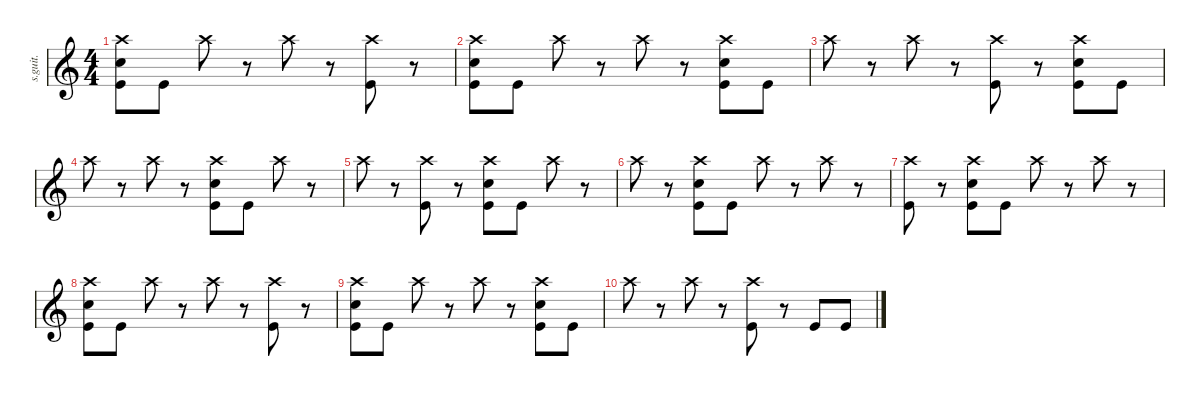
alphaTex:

\defaultSystemsLayout 4
\hideDynamics
\bracketExtendMode nobrackets
\track ("Drumkit" "s.guit.") {instrument percussion}
\staff {score}
\articulation defaults
\ts (4 4)
\tempo (133 hide)
\clef g2
\ks c
("Crash high (hit)" "Snare (hit) 2" "Kick (hit)").8{lyrics (0 "") lyrics (1 "") lyrics (2 "") lyrics (3 "") lyrics (4 "") dy f} "Kick (hit)".8{lyrics (0 "") lyrics (1 "") lyrics (2 "") lyrics (3 "") lyrics (4 "")} "Crash high (hit)".8{lyrics (0 "") lyrics (1 "") lyrics (2 "") lyrics (3 "") lyrics (4 "")} r.8 "Crash high (hit)".8{lyrics (0 "") lyrics (1 "") lyrics (2 "") lyrics (3 "") lyrics (4 "")} r.8 ("Crash high (hit)" "Kick (hit)").8{lyrics (0 "") lyrics (1 "") lyrics (2 "") lyrics (3 "") lyrics (4 "")} r.8 |
("Crash high (hit)" "Snare (hit) 2" "Kick (hit)").8{lyrics (0 "") lyrics (1 "") lyrics (2 "") lyrics (3 "") lyrics (4 "")} "Kick (hit)".8{lyrics (0 "") lyrics (1 "") lyrics (2 "") lyrics (3 "") lyrics (4 "")} "Crash high (hit)".8{lyrics (0 "") lyrics (1 "") lyrics (2 "") lyrics (3 "") lyrics (4 "")} r.8 "Crash high (hit)".8{lyrics (0 "") lyrics (1 "") lyrics (2 "") lyrics (3 "") lyrics (4 "")} r.8 ("Crash high (hit)" "Snare (hit) 2" "Kick (hit)").8{lyrics (0 "") lyrics (1 "") lyrics (2 "") lyrics (3 "") lyrics (4 "")} "Kick (hit)".8{lyrics (0 "") lyrics (1 "") lyrics (2 "") lyrics (3 "") lyrics (4 "")} |
"Crash high (hit)".8{lyrics (0 "") lyrics (1 "") lyrics (2 "") lyrics (3 "") lyrics (4 "")} r.8 "Crash high (hit)".8{lyrics (0 "") lyrics (1 "") lyrics (2 "") lyrics (3 "") lyrics (4 "")} r.8 ("Crash high (hit)" "Kick (hit)").8{lyrics (0 "") lyrics (1 "") lyrics (2 "") lyrics (3 "") lyrics (4 "")} r.8 ("Crash high (hit)" "Snare (hit) 2" "Kick (hit)").8{lyrics (0 "") lyrics (1 "") lyrics (2 "") lyrics (3 "") lyrics (4 "")} "Kick (hit)".8{lyrics (0 "") lyrics (1 "") lyrics (2 "") lyrics (3 "") lyrics (4 "")} |
"Crash high (hit)".8{lyrics (0 "") lyrics (1 "") lyrics (2 "") lyrics (3 "") lyrics (4 "")} r.8 "Crash high (hit)".8{lyrics (0 "") lyrics (1 "") lyrics (2 "") lyrics (3 "") lyrics (4 "")} r.8 ("Crash high (hit)" "Snare (hit) 2" "Kick (hit)").8{lyrics (0 "") lyrics (1 "") lyrics (2 "") lyrics (3 "") lyrics (4 "")} "Kick (hit)".8{lyrics (0 "") lyrics (1 "") lyrics (2 "") lyrics (3 "") lyrics (4 "")} "Crash high (hit)".8{lyrics (0 "") lyrics (1 "") lyrics (2 "") lyrics (3 "") lyrics (4 "")} r.8 |
"Crash high (hit)".8{lyrics (0 "") lyrics (1 "") lyrics (2 "") lyrics (3 "") lyrics (4 "")} r.8 ("Crash high (hit)" "Kick (hit)").8{lyrics (0 "") lyrics (1 "") lyrics (2 "") lyrics (3 "") lyrics (4 "")} r.8 ("Crash high (hit)" "Snare (hit) 2" "Kick (hit)").8{lyrics (0 "") lyrics (1 "") lyrics (2 "") lyrics (3 "") lyrics (4 "")} "Kick (hit)".8{lyrics (0 "") lyrics (1 "") lyrics (2 "") lyrics (3 "") lyrics (4 "")} "Crash high (hit)".8{lyrics (0 "") lyrics (1 "") lyrics (2 "") lyrics (3 "") lyrics (4 "")} r.8 |
"Crash high (hit)".8{lyrics (0 "") lyrics (1 "") lyrics (2 "") lyrics (3 "") lyrics (4 "")} r.8 ("Crash high (hit)" "Snare (hit) 2" "Kick (hit)").8{lyrics (0 "") lyrics (1 "") lyrics (2 "") lyrics (3 "") lyrics (4 "")} "Kick (hit)".8{lyrics (0 "") lyrics (1 "") lyrics (2 "") lyrics (3 "") lyrics (4 "")} "Crash high (hit)".8{lyrics (0 "") lyrics (1 "") lyrics (2 "") lyrics (3 "") lyrics (4 "")} r.8 "Crash high (hit)".8{lyrics (0 "") lyrics (1 "") lyrics (2 "") lyrics (3 "") lyrics (4 "")} r.8 |
("Crash high (hit)" "Kick (hit)").8{lyrics (0 "") lyrics (1 "") lyrics (2 "") lyrics (3 "") lyrics (4 "")} r.8 ("Crash high (hit)" "Snare (hit) 2" "Kick (hit)").8{lyrics (0 "") lyrics (1 "") lyrics (2 "") lyrics (3 "") lyrics (4 "")} "Kick (hit)".8{lyrics (0 "") lyrics (1 "") lyrics (2 "") lyrics (3 "") lyrics (4 "")} "Crash high (hit)".8{lyrics (0 "") lyrics (1 "") lyrics (2 "") lyrics (3 "") lyrics (4 "")} r.8 "Crash high (hit)".8{lyrics (0 "") lyrics (1 "") lyrics (2 "") lyrics (3 "") lyrics (4 "")} r.8 |
("Crash high (hit)" "Snare (hit) 2" "Kick (hit)").8{lyrics (0 "") lyrics (1 "") lyrics (2 "") lyrics (3 "") lyrics (4 "")} "Kick (hit)".8{lyrics (0 "") lyrics (1 "") lyrics (2 "") lyrics (3 "") lyrics (4 "")} "Crash high (hit)".8{lyrics (0 "") lyrics (1 "") lyrics (2 "") lyrics (3 "") lyrics (4 "")} r.8 "Crash high (hit)".8{lyrics (0 "") lyrics (1 "") lyrics (2 "") lyrics (3 "") lyrics (4 "")} r.8 ("Crash high (hit)" "Kick (hit)").8{lyrics (0 "") lyrics (1 "") lyrics (2 "") lyrics (3 "") lyrics (4 "")} r.8 |
("Crash high (hit)" "Snare (hit) 2" "Kick (hit)").8{lyrics (0 "") lyrics (1 "") lyrics (2 "") lyrics (3 "") lyrics (4 "")} "Kick (hit)".8{lyrics (0 "") lyrics (1 "") lyrics (2 "") lyrics (3 "") lyrics (4 "")} "Crash high (hit)".8{lyrics (0 "") lyrics (1 "") lyrics (2 "") lyrics (3 "") lyrics (4 "")} r.8 "Crash high (hit)".8{lyrics (0 "") lyrics (1 "") lyrics (2 "") lyrics (3 "") lyrics (4 "")} r.8 ("Crash high (hit)" "Snare (hit) 2" "Kick (hit)").8{lyrics (0 "") lyrics (1 "") lyrics (2 "") lyrics (3 "") lyrics (4 "")} "Kick (hit)".8{lyrics (0 "") lyrics (1 "") lyrics (2 "") lyrics (3 "") lyrics (4 "")} |
"Crash high (hit)".8{lyrics (0 "") lyrics (1 "") lyrics (2 "") lyrics (3 "") lyrics (4 "")} r.8 "Crash high (hit)".8{lyrics (0 "") lyrics (1 "") lyrics (2 "") lyrics (3 "") lyrics (4 "")} r.8 ("Crash high (hit)" "Kick (hit)").8{lyrics (0 "") lyrics (1 "") lyrics (2 "") lyrics (3 "") lyrics (4 "")} r.8 "Kick (hit)".8{lyrics (0 "") lyrics (1 "") lyrics (2 "") lyrics (3 "") lyrics (4 "")} "Kick (hit)".8{lyrics (0 "") lyrics (1 "") lyrics (2 "") lyrics (3 "") lyrics (4 "")}
